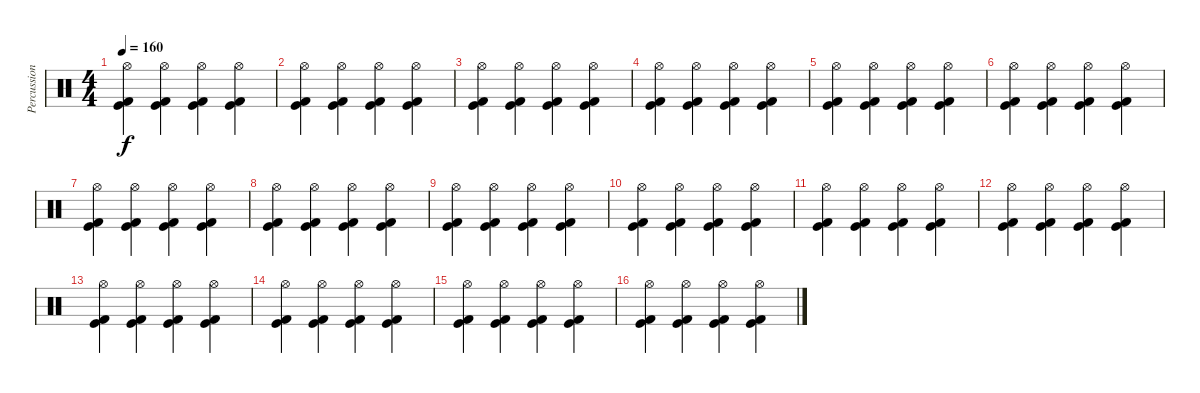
\track ("Percussioni" "Percussion") {instrument percussion}
\staff {score}
\articulation defaults
\ts (4 4)
\tempo 160
\clef neutral
\ks c
("Hi-Hat (open)" "Kick (hit)" "Kick (hit) 2").4{dy f} ("Hi-Hat (open)" "Kick (hit)" "Kick (hit) 2").4 ("Hi-Hat (open)" "Kick (hit)" "Kick (hit) 2").4 ("Hi-Hat (open)" "Kick (hit)" "Kick (hit) 2").4 |
("Hi-Hat (open)" "Kick (hit)" "Kick (hit) 2").4{volume 12} ("Hi-Hat (open)" "Kick (hit)" "Kick (hit) 2").4 ("Hi-Hat (open)" "Kick (hit)" "Kick (hit) 2").4 ("Hi-Hat (open)" "Kick (hit)" "Kick (hit) 2").4 |
("Hi-Hat (open)" "Kick (hit)" "Kick (hit) 2").4{volume 11} ("Hi-Hat (open)" "Kick (hit)" "Kick (hit) 2").4 ("Hi-Hat (open)" "Kick (hit)" "Kick (hit) 2").4 ("Hi-Hat (open)" "Kick (hit)" "Kick (hit) 2").4 |
("Hi-Hat (open)" "Kick (hit)" "Kick (hit) 2").4{volume 11} ("Hi-Hat (open)" "Kick (hit)" "Kick (hit) 2").4 ("Hi-Hat (open)" "Kick (hit)" "Kick (hit) 2").4 ("Hi-Hat (open)" "Kick (hit)" "Kick (hit) 2").4 |
("Hi-Hat (open)" "Kick (hit)" "Kick (hit) 2").4{volume 10} ("Hi-Hat (open)" "Kick (hit)" "Kick (hit) 2").4 ("Hi-Hat (open)" "Kick (hit)" "Kick (hit) 2").4 ("Hi-Hat (open)" "Kick (hit)" "Kick (hit) 2").4 |
("Hi-Hat (open)" "Kick (hit)" "Kick (hit) 2").4{volume 10} ("Hi-Hat (open)" "Kick (hit)" "Kick (hit) 2").4 ("Hi-Hat (open)" "Kick (hit)" "Kick (hit) 2").4 ("Hi-Hat (open)" "Kick (hit)" "Kick (hit) 2").4 |
("Hi-Hat (open)" "Kick (hit)" "Kick (hit) 2").4{volume 9} ("Hi-Hat (open)" "Kick (hit)" "Kick (hit) 2").4 ("Hi-Hat (open)" "Kick (hit)" "Kick (hit) 2").4 ("Hi-Hat (open)" "Kick (hit)" "Kick (hit) 2").4 |
("Hi-Hat (open)" "Kick (hit)" "Kick (hit) 2").4{volume 8} ("Hi-Hat (open)" "Kick (hit)" "Kick (hit) 2").4 ("Hi-Hat (open)" "Kick (hit)" "Kick (hit) 2").4 ("Hi-Hat (open)" "Kick (hit)" "Kick (hit) 2").4 |
("Hi-Hat (open)" "Kick (hit)" "Kick (hit) 2").4{volume 7} ("Hi-Hat (open)" "Kick (hit)" "Kick (hit) 2").4 ("Hi-Hat (open)" "Kick (hit)" "Kick (hit) 2").4 ("Hi-Hat (open)" "Kick (hit)" "Kick (hit) 2").4 |
("Hi-Hat (open)" "Kick (hit)" "Kick (hit) 2").4{volume 6} ("Hi-Hat (open)" "Kick (hit)" "Kick (hit) 2").4 ("Hi-Hat (open)" "Kick (hit)" "Kick (hit) 2").4 ("Hi-Hat (open)" "Kick (hit)" "Kick (hit) 2").4 |
("Hi-Hat (open)" "Kick (hit)" "Kick (hit) 2").4{volume 5} ("Hi-Hat (open)" "Kick (hit)" "Kick (hit) 2").4 ("Hi-Hat (open)" "Kick (hit)" "Kick (hit) 2").4 ("Hi-Hat (open)" "Kick (hit)" "Kick (hit) 2").4 |
("Hi-Hat (open)" "Kick (hit)" "Kick (hit) 2").4{volume 4} ("Hi-Hat (open)" "Kick (hit)" "Kick (hit) 2").4 ("Hi-Hat (open)" "Kick (hit)" "Kick (hit) 2").4 ("Hi-Hat (open)" "Kick (hit)" "Kick (hit) 2").4 |
("Hi-Hat (open)" "Kick (hit)" "Kick (hit) 2").4{volume 3} ("Hi-Hat (open)" "Kick (hit)" "Kick (hit) 2").4 ("Hi-Hat (open)" "Kick (hit)" "Kick (hit) 2").4 ("Hi-Hat (open)" "Kick (hit)" "Kick (hit) 2").4 |
("Hi-Hat (open)" "Kick (hit)" "Kick (hit) 2").4{volume 2} ("Hi-Hat (open)" "Kick (hit)" "Kick (hit) 2").4 ("Hi-Hat (open)" "Kick (hit)" "Kick (hit) 2").4 ("Hi-Hat (open)" "Kick (hit)" "Kick (hit) 2").4 |
("Hi-Hat (open)" "Kick (hit)" "Kick (hit) 2").4{volume 1} ("Hi-Hat (open)" "Kick (hit)" "Kick (hit) 2").4 ("Hi-Hat (open)" "Kick (hit)" "Kick (hit) 2").4 ("Hi-Hat (open)" "Kick (hit)" "Kick (hit) 2").4 |
("Hi-Hat (open)" "Kick (hit)" "Kick (hit) 2").4{volume 0} ("Hi-Hat (open)" "Kick (hit)" "Kick (hit) 2").4 ("Hi-Hat (open)" "Kick (hit)" "Kick (hit) 2").4 ("Hi-Hat (open)" "Kick (hit)" "Kick (hit) 2").4
